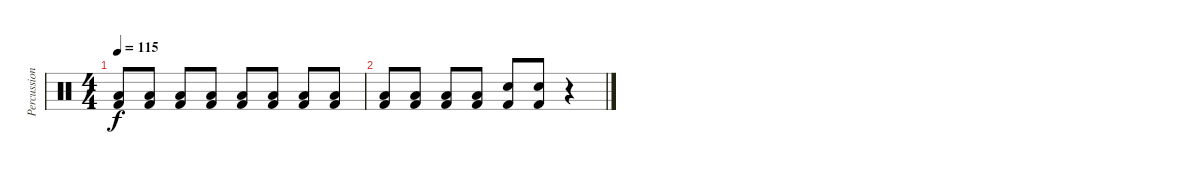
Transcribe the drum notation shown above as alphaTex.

\track ("Percussion" "Percussion") {instrument percussion}
\staff {score}
\articulation defaults
\ts (4 4)
\tempo 115
\clef neutral
\ks c
("Low Floor Tom (hit)" "Kick (hit) 2").8{dy f} ("Low Floor Tom (hit)" "Kick (hit) 2").8 ("Low Floor Tom (hit)" "Kick (hit) 2").8 ("Low Floor Tom (hit)" "Kick (hit) 2").8 ("Low Floor Tom (hit)" "Kick (hit) 2").8 ("Low Floor Tom (hit)" "Kick (hit) 2").8 ("Low Floor Tom (hit)" "Kick (hit) 2").8 ("Low Floor Tom (hit)" "Kick (hit) 2").8 |
("Low Floor Tom (hit)" "Kick (hit) 2").8 ("Low Floor Tom (hit)" "Kick (hit) 2").8 ("Low Floor Tom (hit)" "Kick (hit) 2").8 ("Low Floor Tom (hit)" "Kick (hit) 2").8 ("Electric Snare (hit)" "Kick (hit) 2").8 ("Electric Snare (hit)" "Kick (hit) 2").8 r.4
